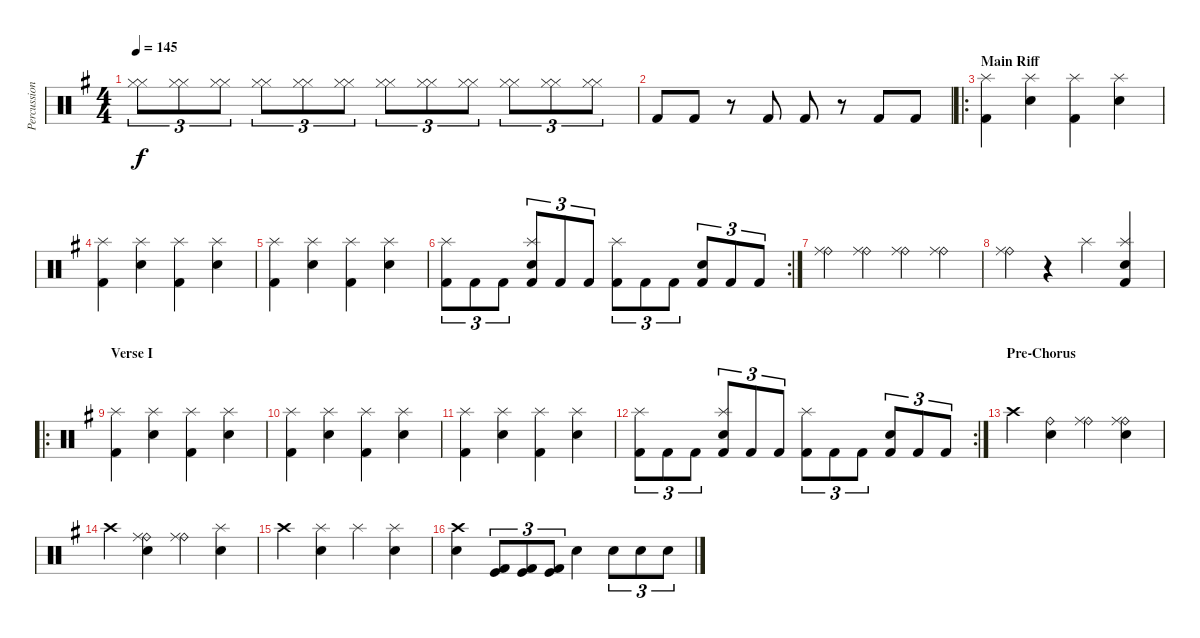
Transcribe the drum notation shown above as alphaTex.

\track ("Percussion" "Percussion") {instrument percussion}
\staff {score}
\articulation defaults
\ts (4 4)
\tempo 145
\clef neutral
\ks eminor
("Hi-Hat (closed)" "Hi-Hat (closed)").8{tu (3 2) dy f} ("Hi-Hat (closed)" "Hi-Hat (closed)").8{tu (3 2)} ("Hi-Hat (closed)" "Hi-Hat (closed)").8{tu (3 2)} ("Hi-Hat (closed)" "Hi-Hat (closed)").8{tu (3 2)} ("Hi-Hat (closed)" "Hi-Hat (closed)").8{tu (3 2)} ("Hi-Hat (closed)" "Hi-Hat (closed)").8{tu (3 2)} ("Hi-Hat (closed)" "Hi-Hat (closed)").8{tu (3 2)} ("Hi-Hat (closed)" "Hi-Hat (closed)").8{tu (3 2)} ("Hi-Hat (closed)" "Hi-Hat (closed)").8{tu (3 2)} ("Hi-Hat (closed)" "Hi-Hat (closed)").8{tu (3 2)} ("Hi-Hat (closed)" "Hi-Hat (closed)").8{tu (3 2)} ("Hi-Hat (closed)" "Hi-Hat (closed)").8{tu (3 2)} |
"Kick (hit) 2".8 "Kick (hit) 2".8 r.8 "Kick (hit) 2".8 "Kick (hit) 2".8 r.8 "Kick (hit) 2".8 "Kick (hit) 2".8 |
\ro
\section ("" "Main Riff")
("Splash (hit)" "Kick (hit) 2").4 ("Electric Snare (hit)" "Splash (hit)").4 ("Splash (hit)" "Kick (hit) 2").4 ("Electric Snare (hit)" "Splash (hit)").4 |
("Splash (hit)" "Kick (hit) 2").4 ("Electric Snare (hit)" "Splash (hit)").4 ("Splash (hit)" "Kick (hit) 2").4 ("Electric Snare (hit)" "Splash (hit)").4 |
("Splash (hit)" "Kick (hit) 2").4 ("Electric Snare (hit)" "Splash (hit)").4 ("Splash (hit)" "Kick (hit) 2").4 ("Electric Snare (hit)" "Splash (hit)").4 |
\rc 2
("Splash (hit)" "Kick (hit) 2").8{tu (3 2)} "Kick (hit) 2".8{tu (3 2)} "Kick (hit) 2".8{tu (3 2)} ("Electric Snare (hit)" "Splash (hit)" "Kick (hit) 2").8{tu (3 2)} "Kick (hit) 2".8{tu (3 2)} "Kick (hit) 2".8{tu (3 2)} ("Splash (hit)" "Kick (hit) 2").8{tu (3 2)} "Kick (hit) 2".8{tu (3 2)} "Kick (hit) 2".8{tu (3 2)} ("Electric Snare (hit)" "Kick (hit) 2").8{tu (3 2)} "Kick (hit) 2".8{tu (3 2)} "Kick (hit) 2".8{tu (3 2)} |
("Ride (bell)" "Ride (middle)").4 ("Ride (bell)" "Ride (middle)").4 ("Ride (bell)" "Ride (middle)").4 ("Ride (bell)" "Ride (middle)").4 |
("Ride (bell)" "Ride (middle)").4 r.4 "Splash (hit)".4 ("Splash (hit)" "Electric Snare (hit)" "Kick (hit) 2").4 |
\ro
\section ("" "Verse I")
("Splash (hit)" "Kick (hit) 2").4 ("Electric Snare (hit)" "Splash (hit)").4 ("Splash (hit)" "Kick (hit) 2").4 ("Electric Snare (hit)" "Splash (hit)").4 |
("Splash (hit)" "Kick (hit) 2").4 ("Electric Snare (hit)" "Splash (hit)").4 ("Splash (hit)" "Kick (hit) 2").4 ("Electric Snare (hit)" "Splash (hit)").4 |
("Splash (hit)" "Kick (hit) 2").4 ("Electric Snare (hit)" "Splash (hit)").4 ("Splash (hit)" "Kick (hit) 2").4 ("Electric Snare (hit)" "Splash (hit)").4 |
\rc 2
("Splash (hit)" "Kick (hit) 2").8{tu (3 2)} "Kick (hit) 2".8{tu (3 2)} "Kick (hit) 2".8{tu (3 2)} ("Electric Snare (hit)" "Splash (hit)" "Kick (hit) 2").8{tu (3 2)} "Kick (hit) 2".8{tu (3 2)} "Kick (hit) 2".8{tu (3 2)} ("Splash (hit)" "Kick (hit) 2").8{tu (3 2)} "Kick (hit) 2".8{tu (3 2)} "Kick (hit) 2".8{tu (3 2)} ("Electric Snare (hit)" "Kick (hit) 2").8{tu (3 2)} "Kick (hit) 2".8{tu (3 2)} "Kick (hit) 2".8{tu (3 2)} |
\section ("" "Pre-Chorus")
"Crash high (hit)".4 ("Ride (bell)" "Electric Snare (hit)").4 ("Ride (bell)" "Ride (middle)").4 ("Ride (bell)" "Ride (middle)" "Electric Snare (hit)").4 |
"Crash high (hit)".4 ("Ride (bell)" "Ride (middle)" "Electric Snare (hit)").4 ("Ride (bell)" "Ride (middle)").4 ("Splash (hit)" "Electric Snare (hit)").4 |
"Crash high (hit)".4 ("Splash (hit)" "Electric Snare (hit)").4 "Splash (hit)".4 ("Splash (hit)" "Electric Snare (hit)").4 |
("Crash high (hit)" "Electric Snare (hit)").4 ("Kick (hit)" "Kick (hit) 2").8{tu (3 2)} ("Kick (hit)" "Kick (hit) 2").8{tu (3 2)} ("Kick (hit)" "Kick (hit) 2").8{tu (3 2)} "Electric Snare (hit)".4 "Electric Snare (hit)".8{tu (3 2)} "Electric Snare (hit)".8{tu (3 2)} "Electric Snare (hit)".8{tu (3 2)}
